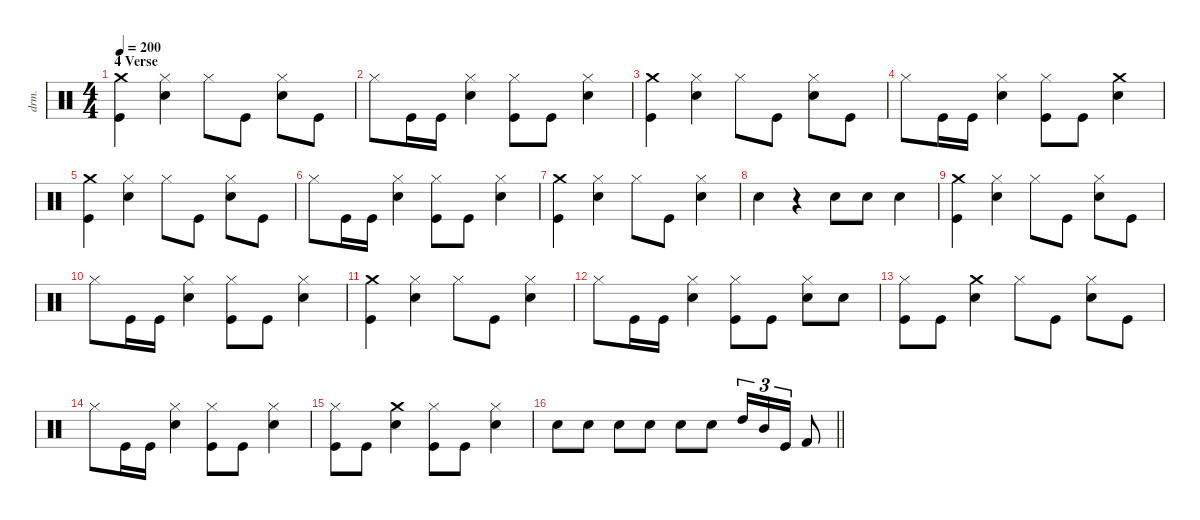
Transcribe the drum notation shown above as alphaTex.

\defaultSystemsLayout 4
\hideDynamics
\bracketExtendMode nobrackets
\otherSystemsTrackNameOrientation horizontal
\track ("Lars Ulrich (Drums)" "drm.") {instrument percussion}
\staff {score}
\articulation defaults
\ts (4 4)
\section ("" "4 Verse")
\tempo 200
\clef neutral
\ks c
("Kick (hit)" "Crash medium (hit)").4{dy f beam Down} ("Snare (hit) 2" "Hi-Hat (closed)").4{beam Down} "Hi-Hat (closed)".8{beam Down} "Kick (hit)".8{beam Down} ("Snare (hit) 2" "Hi-Hat (closed)").8{beam Down} "Kick (hit)".8{beam Down} |
"Hi-Hat (closed)".8{beam Down} "Kick (hit)".16{beam Down} "Kick (hit)".16{beam Down} ("Snare (hit) 2" "Hi-Hat (closed)").4{beam Down} ("Kick (hit)" "Hi-Hat (closed)").8{beam Down} "Kick (hit)".8{beam Down} ("Snare (hit) 2" "Hi-Hat (closed)").4{beam Down} |
("Kick (hit)" "Crash medium (hit)").4{beam Down} ("Hi-Hat (closed)" "Snare (hit) 2").4{beam Down} "Hi-Hat (closed)".8{beam Down} "Kick (hit)".8{beam Down} ("Snare (hit) 2" "Hi-Hat (closed)").8{beam Down} "Kick (hit)".8{beam Down} |
"Hi-Hat (closed)".8{beam Down} "Kick (hit)".16{beam Down} "Kick (hit)".16{beam Down} ("Snare (hit) 2" "Hi-Hat (closed)").4{beam Down} ("Kick (hit)" "Hi-Hat (closed)").8{beam Down} "Kick (hit)".8{beam Down} ("Crash medium (hit)" "Snare (hit) 2").4{beam Down} |
("Kick (hit)" "Crash medium (hit)").4{beam Down} ("Hi-Hat (closed)" "Snare (hit) 2").4{beam Down} "Hi-Hat (closed)".8{beam Down} "Kick (hit)".8{beam Down} ("Snare (hit) 2" "Hi-Hat (closed)").8{beam Down} "Kick (hit)".8{beam Down} |
"Hi-Hat (closed)".8{beam Down} "Kick (hit)".16{beam Down} "Kick (hit)".16{beam Down} ("Snare (hit) 2" "Hi-Hat (closed)").4{beam Down} ("Kick (hit)" "Hi-Hat (closed)").8{beam Down} "Kick (hit)".8{beam Down} ("Snare (hit) 2" "Hi-Hat (closed)").4{beam Down} |
("Kick (hit)" "Crash medium (hit)").4{beam Down} ("Hi-Hat (closed)" "Snare (hit) 2").4{beam Down} "Hi-Hat (closed)".8{beam Down} "Kick (hit)".8{beam Down} ("Snare (hit) 2" "Hi-Hat (closed)").4{beam Down} |
"Snare (hit) 2".4{beam Down} r.4{beam Down} "Snare (hit) 2".8{beam Down} "Snare (hit) 2".8{beam Down} "Snare (hit) 2".4{beam Down} |
("Kick (hit)" "Crash medium (hit)").4{beam Down} ("Hi-Hat (closed)" "Snare (hit) 2").4{beam Down} "Hi-Hat (closed)".8{beam Down} "Kick (hit)".8{beam Down} ("Snare (hit) 2" "Hi-Hat (closed)").8{beam Down} "Kick (hit)".8{beam Down} |
"Hi-Hat (closed)".8{beam Down} "Kick (hit)".16{beam Down} "Kick (hit)".16{beam Down} ("Snare (hit) 2" "Hi-Hat (closed)").4{beam Down} ("Kick (hit)" "Hi-Hat (closed)").8{beam Down} "Kick (hit)".8{beam Down} ("Snare (hit) 2" "Hi-Hat (closed)").4{beam Down} |
("Kick (hit)" "Crash medium (hit)").4{beam Down} ("Hi-Hat (closed)" "Snare (hit) 2").4{beam Down} "Hi-Hat (closed)".8{beam Down} "Kick (hit)".8{beam Down} ("Snare (hit) 2" "Hi-Hat (closed)").4{beam Down} |
"Hi-Hat (closed)".8{beam Down} "Kick (hit)".16{beam Down} "Kick (hit)".16{beam Down} ("Snare (hit) 2" "Hi-Hat (closed)").4{beam Down} ("Kick (hit)" "Hi-Hat (closed)").8{beam Down} "Kick (hit)".8{beam Down} ("Snare (hit) 2" "Hi-Hat (closed)").8{beam Down} "Snare (hit) 2".8{beam Down} |
("Kick (hit)" "Hi-Hat (closed)").8{beam Down} "Kick (hit)".8{beam Down} ("Crash medium (hit)" "Snare (hit) 2").4{beam Down} "Hi-Hat (closed)".8{beam Down} "Kick (hit)".8{beam Down} ("Snare (hit) 2" "Hi-Hat (closed)").8{beam Down} "Kick (hit)".8{beam Down} |
"Hi-Hat (closed)".8{beam Down} "Kick (hit)".16{beam Down} "Kick (hit)".16{beam Down} ("Snare (hit) 2" "Hi-Hat (closed)").4{beam Down} ("Kick (hit)" "Hi-Hat (closed)").8{beam Down} "Kick (hit)".8{beam Down} ("Snare (hit) 2" "Hi-Hat (closed)").4{beam Down} |
("Kick (hit)" "Hi-Hat (closed)").8{beam Down} "Kick (hit)".8{beam Down} ("Snare (hit) 2" "Crash medium (hit)").4{beam Down} ("Kick (hit)" "Hi-Hat (closed)").8{beam Down} "Kick (hit)".8{beam Down} ("Snare (hit) 2" "Hi-Hat (closed)").4{beam Down} |
\barLineRight lightlight "Snare (hit) 2".8{beam Down} "Snare (hit) 2".8{beam Down} "Snare (hit) 2".8{beam Down} "Snare (hit) 2".8{beam Down} "Snare (hit) 2".8{beam Down} "Snare (hit) 2".8{beam Down} "High Tom (hit)".16{tu (3 2) beam Up} "Mid Tom (hit)".16{tu (3 2) beam Up} "Kick (hit)".16{tu (3 2) beam Up} "Kick (hit) 2".8{beam Up}
